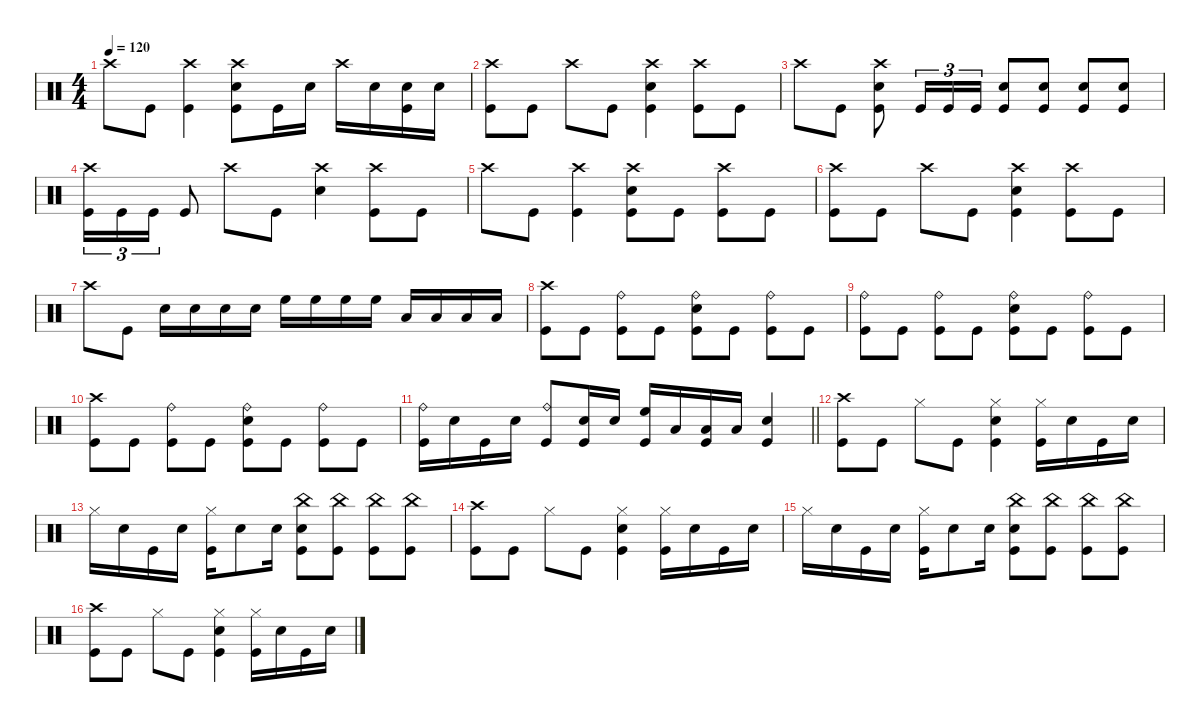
\defaultSystemsLayout 4
\hideDynamics
\bracketExtendMode nobrackets
\singleTrackTrackNamePolicy hidden
\multiTrackTrackNamePolicy hidden
\firstSystemTrackNameMode fullname
\firstSystemTrackNameOrientation horizontal
\otherSystemsTrackNameOrientation horizontal
\track ("Drums" "drm.") {instrument percussion}
\staff {score}
\articulation defaults
\ts (4 4)
\tempo 120
\clef neutral
\ks c "Crash high (hit)".8{dy f beam Down} "Kick (hit)".8{beam Down}
("Crash high (hit)" "Kick (hit)").4{beam Down} ("Snare (hit) 2" "Crash high (hit)" "Kick (hit)").8{beam Down} "Kick (hit)".16{beam Down} "Snare (hit) 2".16{beam Down} "Crash high (hit)".16{beam Down} "Snare (hit) 2".16{beam Down} ("Kick (hit)" "Snare (hit) 2").16{beam Down} "Snare (hit) 2".16{beam Down} |
("Crash high (hit)" "Kick (hit)").8{beam Down} "Kick (hit)".8{beam Down} "Crash high (hit)".8{beam Down} "Kick (hit)".8{beam Down} ("Snare (hit) 2" "Crash high (hit)" "Kick (hit)").4{beam Down} ("Crash high (hit)" "Kick (hit)").8{beam Down} "Kick (hit)".8{beam Down} |
"Crash high (hit)".8{beam Down} "Kick (hit)".8{beam Down} ("Snare (hit) 2" "Crash high (hit)" "Kick (hit)").8{beam Down} "Kick (hit)".16{tu (3 2) beam Up} "Kick (hit)".16{tu (3 2) beam Up} "Kick (hit)".16{tu (3 2) beam Up} ("Kick (hit)" "Snare (hit) 2").8{beam Up} ("Kick (hit)" "Snare (hit) 2").8{beam Up} ("Kick (hit)" "Snare (hit) 2").8{beam Up} ("Kick (hit)" "Snare (hit) 2").8{beam Up} |
("Kick (hit)" "Crash high (hit)").16{tu (3 2) beam Down} "Kick (hit)".16{tu (3 2) beam Down} "Kick (hit)".16{tu (3 2) beam Down} "Kick (hit)".8{beam Up} "Crash high (hit)".8{beam Down} "Kick (hit)".8{beam Down} ("Snare (hit) 2" "Crash high (hit)").4{beam Down} ("Kick (hit)" "Crash high (hit)").8{beam Down} "Kick (hit)".8{beam Down} |
"Crash high (hit)".8{beam Down} "Kick (hit)".8{beam Down} ("Kick (hit)" "Crash high (hit)").4{beam Down} ("Kick (hit)" "Snare (hit) 2" "Crash high (hit)").8{beam Down} "Kick (hit)".8{beam Down} ("Crash high (hit)" "Kick (hit)").8{beam Down} "Kick (hit)".8{beam Down} |
("Crash high (hit)" "Kick (hit)").8{beam Down} "Kick (hit)".8{beam Down} "Crash high (hit)".8{beam Down} "Kick (hit)".8{beam Down} ("Snare (hit) 2" "Crash high (hit)" "Kick (hit)").4{beam Down} ("Crash high (hit)" "Kick (hit)").8{beam Down} "Kick (hit)".8{beam Down} |
"Crash high (hit)".8{beam Down} "Kick (hit)".8{beam Down} "Snare (hit) 2".16{beam Down} "Snare (hit) 2".16{beam Down} "Snare (hit) 2".16{beam Down} "Snare (hit) 2".16{beam Down} "High Floor Tom (hit)".16{beam Down} "High Floor Tom (hit)".16{beam Down} "High Floor Tom (hit)".16{beam Down} "High Floor Tom (hit)".16{beam Down} "Low Tom (hit)".16{beam Up} "Low Tom (hit)".16{beam Up} "Low Tom (hit)".16{beam Up} "Low Tom (hit)".16{beam Up} |
("Kick (hit)" "Crash high (hit)").8{beam Down} "Kick (hit)".8{beam Down} ("Kick (hit)" "Ride (bell)").8{beam Down} "Kick (hit)".8{beam Down} ("Kick (hit)" "Snare (hit) 2" "Ride (bell)").8{beam Down} "Kick (hit)".8{beam Down} ("Kick (hit)" "Ride (bell)").8{beam Down} "Kick (hit)".8{beam Down} |
("Ride (bell)" "Kick (hit)").8{beam Down} "Kick (hit)".8{beam Down} ("Ride (bell)" "Kick (hit)").8{beam Down} "Kick (hit)".8{beam Down} ("Snare (hit) 2" "Ride (bell)" "Kick (hit)").8{beam Down} "Kick (hit)".8{beam Down} ("Ride (bell)" "Kick (hit)").8{beam Down} "Kick (hit)".8{beam Down} |
("Crash high (hit)" "Kick (hit)").8{beam Down} "Kick (hit)".8{beam Down} ("Ride (bell)" "Kick (hit)").8{beam Down} "Kick (hit)".8{beam Down} ("Snare (hit) 2" "Ride (bell)" "Kick (hit)").8{beam Down} "Kick (hit)".8{beam Down} ("Ride (bell)" "Kick (hit)").8{beam Down} "Kick (hit)".8{beam Down} |
\barLineRight lightlight
("Kick (hit)" "Ride (bell)").16{beam Down} "Snare (hit) 2".16{beam Down} "Kick (hit)".16{beam Down} "Snare (hit) 2".16{beam Down} ("Ride (bell)" "Kick (hit)").8{beam Up} ("Snare (hit) 2" "Kick (hit)").16{beam Up} "Snare (hit) 2".16{beam Up} ("High Floor Tom (hit)" "Kick (hit)").16{beam Up} "Low Tom (hit)".16{beam Up} ("Low Floor Tom (hit)" "Kick (hit)").16{beam Up} "Low Floor Tom (hit)".16{beam Up} ("Snare (hit) 2" "Kick (hit)").4{beam Up} |
("Kick (hit)" "Crash high (hit)").8{beam Down} "Kick (hit)".8{beam Down} "Hi-Hat (closed)".8{beam Down} "Kick (hit)".8{beam Down} ("Kick (hit)" "Snare (hit) 2" "Hi-Hat (closed)").4{beam Down} ("Kick (hit)" "Hi-Hat (closed)").16{beam Down} "Snare (hit) 2".16{beam Down} "Kick (hit)".16{beam Down} "Snare (hit) 2".16{beam Down} |
"Hi-Hat (closed)".16{beam Down} "Snare (hit) 2".16{beam Down} "Kick (hit)".16{beam Down} "Snare (hit) 2".16{beam Down} ("Kick (hit)" "Hi-Hat (closed)").16{beam Down} "Snare (hit) 2".8{beam Down} "Snare (hit) 2".16{beam Down} ("Snare (hit) 2" "China (hit)" "Kick (hit)").8{beam Down} ("China (hit)" "Kick (hit)").8{beam Down} ("China (hit)" "Kick (hit)").8{beam Down} ("China (hit)" "Kick (hit)").8{beam Down} |
("Crash high (hit)" "Kick (hit)").8{beam Down} "Kick (hit)".8{beam Down} "Hi-Hat (closed)".8{beam Down} "Kick (hit)".8{beam Down} ("Snare (hit) 2" "Hi-Hat (closed)" "Kick (hit)").4{beam Down} ("Hi-Hat (closed)" "Kick (hit)").16{beam Down} "Snare (hit) 2".16{beam Down} "Kick (hit)".16{beam Down} "Snare (hit) 2".16{beam Down} |
"Hi-Hat (closed)".16{beam Down} "Snare (hit) 2".16{beam Down} "Kick (hit)".16{beam Down} "Snare (hit) 2".16{beam Down} ("Hi-Hat (closed)" "Kick (hit)").16{beam Down} "Snare (hit) 2".8{beam Down} "Snare (hit) 2".16{beam Down} ("Kick (hit)" "Snare (hit) 2" "China (hit)").8{beam Down} ("Kick (hit)" "China (hit)").8{beam Down} ("Kick (hit)" "China (hit)").8{beam Down} ("Kick (hit)" "China (hit)").8{beam Down} |
("Crash high (hit)" "Kick (hit)").8{beam Down} "Kick (hit)".8{beam Down} "Hi-Hat (closed)".8{beam Down} "Kick (hit)".8{beam Down} ("Snare (hit) 2" "Hi-Hat (closed)" "Kick (hit)").4{beam Down} ("Hi-Hat (closed)" "Kick (hit)").16{beam Down} "Snare (hit) 2".16{beam Down} "Kick (hit)".16{beam Down} "Snare (hit) 2".16{beam Down}
